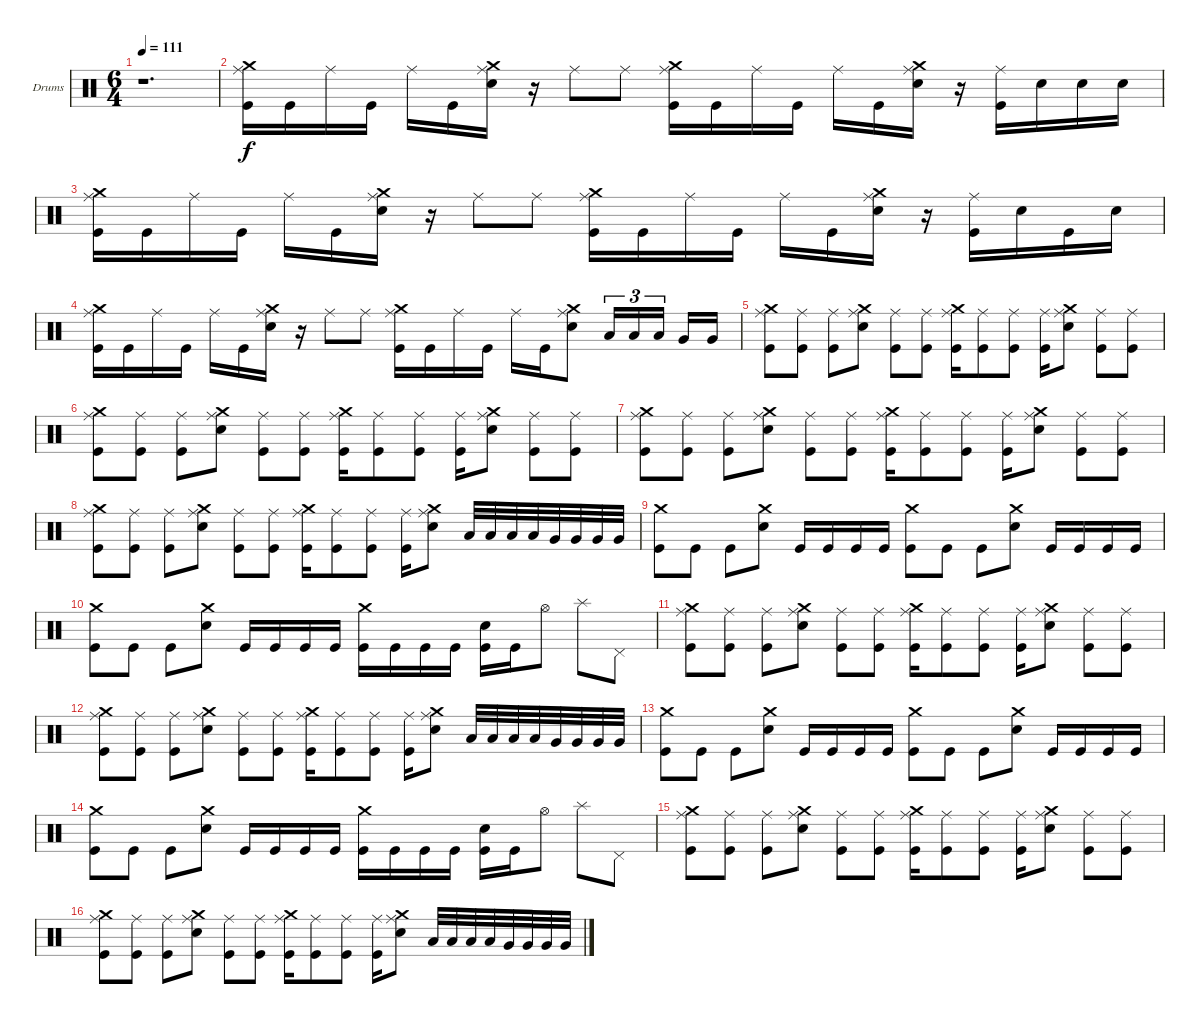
\bracketExtendMode groupsimilarinstruments
\firstSystemTrackNameOrientation horizontal
\otherSystemsTrackNameOrientation horizontal
\track ("Drumkit" "Drums") {instrument percussion}
\staff {score}
\articulation defaults
\ts (6 4)
\tempo 111
\clef neutral
\ks c
r.1{d dy f} |
("Crash medium (hit)" "Ride (middle)" "Kick (hit)").16 "Kick (hit)".16 "Ride (middle)".16 "Kick (hit)".16 "Ride (middle)".16 "Kick (hit)".16 ("Crash medium (hit)" "Ride (middle)" "Snare (hit) 2").16 r.16 "Ride (middle)".8 "Ride (middle)".8 ("Crash medium (hit)" "Ride (middle)" "Kick (hit)").16 "Kick (hit)".16 "Ride (middle)".16 "Kick (hit)".16 "Ride (middle)".16 "Kick (hit)".16 ("Crash medium (hit)" "Ride (middle)" "Snare (hit) 2").16 r.16 ("Ride (middle)" "Kick (hit)").16 "Snare (hit) 2".16 "Snare (hit) 2".16 "Snare (hit) 2".16 |
("Crash medium (hit)" "Ride (middle)" "Kick (hit)").16 "Kick (hit)".16 "Ride (middle)".16 "Kick (hit)".16 "Ride (middle)".16 "Kick (hit)".16 ("Crash medium (hit)" "Ride (middle)" "Snare (hit) 2").16 r.16 "Ride (middle)".8 "Ride (middle)".8 ("Crash medium (hit)" "Ride (middle)" "Kick (hit)").16 "Kick (hit)".16 "Ride (middle)".16 "Kick (hit)".16 "Ride (middle)".16 "Kick (hit)".16 ("Crash medium (hit)" "Ride (middle)" "Snare (hit) 2").16 r.16 ("Ride (middle)" "Kick (hit)").16 "Snare (hit) 2".16 "Kick (hit)".16 "Snare (hit) 2".16 |
("Crash medium (hit)" "Ride (middle)" "Kick (hit)").16 "Kick (hit)".16 "Ride (middle)".16 "Kick (hit)".16 "Ride (middle)".16 "Kick (hit)".16 ("Crash medium (hit)" "Ride (middle)" "Snare (hit) 2").16 r.16 "Ride (middle)".8 "Ride (middle)".8 ("Crash medium (hit)" "Ride (middle)" "Kick (hit)").16 "Kick (hit)".16 "Ride (middle)".16 "Kick (hit)".16 "Ride (middle)".16 "Kick (hit)".16 ("Crash medium (hit)" "Ride (middle)" "Snare (hit) 2").8 "Low Tom (hit)".16{tu (3 2)} "Low Tom (hit)".16{tu (3 2)} "Low Tom (hit)".16{tu (3 2)} "Very Low Tom (hit)".16 "Very Low Tom (hit)".16 |
("Crash medium (hit)" "Ride (middle)" "Kick (hit)").8 ("Ride (middle)" "Kick (hit)").8 ("Ride (middle)" "Kick (hit)").8 ("Crash medium (hit)" "Ride (middle)" "Snare (hit) 2").8 ("Ride (middle)" "Kick (hit)").8 ("Ride (middle)" "Kick (hit)").8 ("Crash medium (hit)" "Ride (middle)" "Kick (hit)").16 ("Ride (middle)" "Kick (hit)").8 ("Ride (middle)" "Kick (hit)").8 ("Ride (middle)" "Kick (hit)").16 ("Crash medium (hit)" "Ride (middle)" "Snare (hit) 2").8 ("Ride (middle)" "Kick (hit)").8 ("Ride (middle)" "Kick (hit)").8 |
("Crash medium (hit)" "Ride (middle)" "Kick (hit)").8 ("Ride (middle)" "Kick (hit)").8 ("Ride (middle)" "Kick (hit)").8 ("Crash medium (hit)" "Ride (middle)" "Snare (hit) 2").8 ("Ride (middle)" "Kick (hit)").8 ("Ride (middle)" "Kick (hit)").8 ("Crash medium (hit)" "Ride (middle)" "Kick (hit)").16 ("Ride (middle)" "Kick (hit)").8 ("Ride (middle)" "Kick (hit)").8 ("Ride (middle)" "Kick (hit)").16 ("Crash medium (hit)" "Ride (middle)" "Snare (hit) 2").8 ("Ride (middle)" "Kick (hit)").8 ("Ride (middle)" "Kick (hit)").8 |
("Crash medium (hit)" "Ride (middle)" "Kick (hit)").8 ("Ride (middle)" "Kick (hit)").8 ("Ride (middle)" "Kick (hit)").8 ("Crash medium (hit)" "Ride (middle)" "Snare (hit) 2").8 ("Ride (middle)" "Kick (hit)").8 ("Ride (middle)" "Kick (hit)").8 ("Crash medium (hit)" "Ride (middle)" "Kick (hit)").16 ("Ride (middle)" "Kick (hit)").8 ("Ride (middle)" "Kick (hit)").8 ("Ride (middle)" "Kick (hit)").16 ("Crash medium (hit)" "Ride (middle)" "Snare (hit) 2").8 ("Ride (middle)" "Kick (hit)").8 ("Ride (middle)" "Kick (hit)").8 |
("Crash medium (hit)" "Ride (middle)" "Kick (hit)").8 ("Ride (middle)" "Kick (hit)").8 ("Ride (middle)" "Kick (hit)").8 ("Crash medium (hit)" "Ride (middle)" "Snare (hit) 2").8 ("Ride (middle)" "Kick (hit)").8 ("Ride (middle)" "Kick (hit)").8 ("Crash medium (hit)" "Ride (middle)" "Kick (hit)").16 ("Ride (middle)" "Kick (hit)").8 ("Ride (middle)" "Kick (hit)").8 ("Ride (middle)" "Kick (hit)").16 ("Crash medium (hit)" "Ride (middle)" "Snare (hit) 2").8 "Low Tom (hit)".32 "Low Tom (hit)".32 "Low Tom (hit)".32 "Low Tom (hit)".32 "Very Low Tom (hit)".32 "Very Low Tom (hit)".32 "Very Low Tom (hit)".32 "Very Low Tom (hit)".32 |
("Crash medium (hit)" "Kick (hit)").8 "Kick (hit)".8 "Kick (hit)".8 ("Crash medium (hit)" "Snare (hit) 2").8 "Kick (hit)".16 "Kick (hit)".16 "Kick (hit)".16 "Kick (hit)".16 ("Crash medium (hit)" "Kick (hit)").8 "Kick (hit)".8 "Kick (hit)".8 ("Crash medium (hit)" "Snare (hit) 2").8 "Kick (hit)".16 "Kick (hit)".16 "Kick (hit)".16 "Kick (hit)".16 |
("Crash medium (hit)" "Kick (hit)").8 "Kick (hit)".8 "Kick (hit)".8 ("Crash medium (hit)" "Snare (hit) 2").8 "Kick (hit)".16 "Kick (hit)".16 "Kick (hit)".16 "Kick (hit)".16 ("Crash medium (hit)" "Kick (hit)").16 "Kick (hit)".16 "Kick (hit)".16 "Kick (hit)".16 ("Snare (hit) 2" "Kick (hit)").16 "Kick (hit)".16 "Hi-Hat (open)".8 "Splash (hit)".8 "Pedal Hi-Hat (hit)".8 |
("Crash medium (hit)" "Ride (middle)" "Kick (hit)").8 ("Ride (middle)" "Kick (hit)").8 ("Ride (middle)" "Kick (hit)").8 ("Crash medium (hit)" "Ride (middle)" "Snare (hit) 2").8 ("Ride (middle)" "Kick (hit)").8 ("Ride (middle)" "Kick (hit)").8 ("Crash medium (hit)" "Ride (middle)" "Kick (hit)").16 ("Ride (middle)" "Kick (hit)").8 ("Ride (middle)" "Kick (hit)").8 ("Ride (middle)" "Kick (hit)").16 ("Crash medium (hit)" "Ride (middle)" "Snare (hit) 2").8 ("Ride (middle)" "Kick (hit)").8 ("Ride (middle)" "Kick (hit)").8 |
("Crash medium (hit)" "Ride (middle)" "Kick (hit)").8 ("Ride (middle)" "Kick (hit)").8 ("Ride (middle)" "Kick (hit)").8 ("Crash medium (hit)" "Ride (middle)" "Snare (hit) 2").8 ("Ride (middle)" "Kick (hit)").8 ("Ride (middle)" "Kick (hit)").8 ("Crash medium (hit)" "Ride (middle)" "Kick (hit)").16 ("Ride (middle)" "Kick (hit)").8 ("Ride (middle)" "Kick (hit)").8 ("Ride (middle)" "Kick (hit)").16 ("Crash medium (hit)" "Ride (middle)" "Snare (hit) 2").8 "Low Tom (hit)".32 "Low Tom (hit)".32 "Low Tom (hit)".32 "Low Tom (hit)".32 "Very Low Tom (hit)".32 "Very Low Tom (hit)".32 "Very Low Tom (hit)".32 "Very Low Tom (hit)".32 |
("Crash medium (hit)" "Kick (hit)").8 "Kick (hit)".8 "Kick (hit)".8 ("Crash medium (hit)" "Snare (hit) 2").8 "Kick (hit)".16 "Kick (hit)".16 "Kick (hit)".16 "Kick (hit)".16 ("Crash medium (hit)" "Kick (hit)").8 "Kick (hit)".8 "Kick (hit)".8 ("Crash medium (hit)" "Snare (hit) 2").8 "Kick (hit)".16 "Kick (hit)".16 "Kick (hit)".16 "Kick (hit)".16 |
("Crash medium (hit)" "Kick (hit)").8 "Kick (hit)".8 "Kick (hit)".8 ("Crash medium (hit)" "Snare (hit) 2").8 "Kick (hit)".16 "Kick (hit)".16 "Kick (hit)".16 "Kick (hit)".16 ("Crash medium (hit)" "Kick (hit)").16 "Kick (hit)".16 "Kick (hit)".16 "Kick (hit)".16 ("Snare (hit) 2" "Kick (hit)").16 "Kick (hit)".16 "Hi-Hat (open)".8 "Splash (hit)".8 "Pedal Hi-Hat (hit)".8 |
("Crash medium (hit)" "Ride (middle)" "Kick (hit)").8 ("Ride (middle)" "Kick (hit)").8 ("Ride (middle)" "Kick (hit)").8 ("Crash medium (hit)" "Ride (middle)" "Snare (hit) 2").8 ("Ride (middle)" "Kick (hit)").8 ("Ride (middle)" "Kick (hit)").8 ("Crash medium (hit)" "Ride (middle)" "Kick (hit)").16 ("Ride (middle)" "Kick (hit)").8 ("Ride (middle)" "Kick (hit)").8 ("Ride (middle)" "Kick (hit)").16 ("Crash medium (hit)" "Ride (middle)" "Snare (hit) 2").8 ("Ride (middle)" "Kick (hit)").8 ("Ride (middle)" "Kick (hit)").8 |
("Crash medium (hit)" "Ride (middle)" "Kick (hit)").8 ("Ride (middle)" "Kick (hit)").8 ("Ride (middle)" "Kick (hit)").8 ("Crash medium (hit)" "Ride (middle)" "Snare (hit) 2").8 ("Ride (middle)" "Kick (hit)").8 ("Ride (middle)" "Kick (hit)").8 ("Crash medium (hit)" "Ride (middle)" "Kick (hit)").16 ("Ride (middle)" "Kick (hit)").8 ("Ride (middle)" "Kick (hit)").8 ("Ride (middle)" "Kick (hit)").16 ("Crash medium (hit)" "Ride (middle)" "Snare (hit) 2").8 "Low Tom (hit)".32 "Low Tom (hit)".32 "Low Tom (hit)".32 "Low Tom (hit)".32 "Very Low Tom (hit)".32 "Very Low Tom (hit)".32 "Very Low Tom (hit)".32 "Very Low Tom (hit)".32
